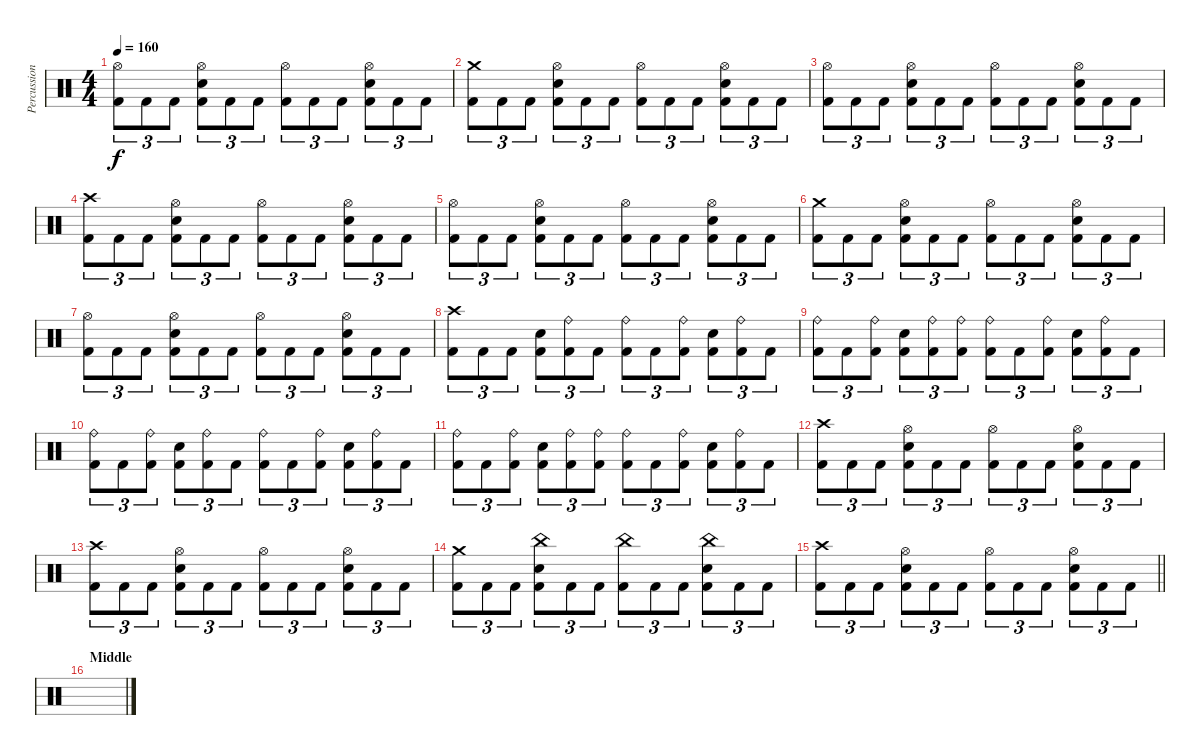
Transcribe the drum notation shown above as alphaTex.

\track ("Percussion" "Percussion") {instrument percussion}
\staff {score}
\articulation defaults
\ts (4 4)
\tempo 160
\clef neutral
\ks c
("Hi-Hat (open)" "Kick (hit) 2").8{tu (3 2) dy f} "Kick (hit) 2".8{tu (3 2)} "Kick (hit) 2".8{tu (3 2)} ("Hi-Hat (open)" "Snare (hit) 2" "Kick (hit) 2").8{tu (3 2)} "Kick (hit) 2".8{tu (3 2)} "Kick (hit) 2".8{tu (3 2)} ("Hi-Hat (open)" "Kick (hit) 2").8{tu (3 2)} "Kick (hit) 2".8{tu (3 2)} "Kick (hit) 2".8{tu (3 2)} ("Hi-Hat (open)" "Snare (hit) 2" "Kick (hit) 2").8{tu (3 2)} "Kick (hit) 2".8{tu (3 2)} "Kick (hit) 2".8{tu (3 2)} |
("Crash medium (hit)" "Kick (hit) 2").8{tu (3 2)} "Kick (hit) 2".8{tu (3 2)} "Kick (hit) 2".8{tu (3 2)} ("Hi-Hat (open)" "Snare (hit) 2" "Kick (hit) 2").8{tu (3 2)} "Kick (hit) 2".8{tu (3 2)} "Kick (hit) 2".8{tu (3 2)} ("Hi-Hat (open)" "Kick (hit) 2").8{tu (3 2)} "Kick (hit) 2".8{tu (3 2)} "Kick (hit) 2".8{tu (3 2)} ("Hi-Hat (open)" "Snare (hit) 2" "Kick (hit) 2").8{tu (3 2)} "Kick (hit) 2".8{tu (3 2)} "Kick (hit) 2".8{tu (3 2)} |
("Hi-Hat (open)" "Kick (hit) 2").8{tu (3 2)} "Kick (hit) 2".8{tu (3 2)} "Kick (hit) 2".8{tu (3 2)} ("Hi-Hat (open)" "Snare (hit) 2" "Kick (hit) 2").8{tu (3 2)} "Kick (hit) 2".8{tu (3 2)} "Kick (hit) 2".8{tu (3 2)} ("Hi-Hat (open)" "Kick (hit) 2").8{tu (3 2)} "Kick (hit) 2".8{tu (3 2)} "Kick (hit) 2".8{tu (3 2)} ("Hi-Hat (open)" "Snare (hit) 2" "Kick (hit) 2").8{tu (3 2)} "Kick (hit) 2".8{tu (3 2)} "Kick (hit) 2".8{tu (3 2)} |
("Crash high (hit)" "Kick (hit) 2").8{tu (3 2)} "Kick (hit) 2".8{tu (3 2)} "Kick (hit) 2".8{tu (3 2)} ("Hi-Hat (open)" "Snare (hit) 2" "Kick (hit) 2").8{tu (3 2)} "Kick (hit) 2".8{tu (3 2)} "Kick (hit) 2".8{tu (3 2)} ("Hi-Hat (open)" "Kick (hit) 2").8{tu (3 2)} "Kick (hit) 2".8{tu (3 2)} "Kick (hit) 2".8{tu (3 2)} ("Hi-Hat (open)" "Snare (hit) 2" "Kick (hit) 2").8{tu (3 2)} "Kick (hit) 2".8{tu (3 2)} "Kick (hit) 2".8{tu (3 2)} |
("Hi-Hat (open)" "Kick (hit) 2").8{tu (3 2)} "Kick (hit) 2".8{tu (3 2)} "Kick (hit) 2".8{tu (3 2)} ("Hi-Hat (open)" "Snare (hit) 2" "Kick (hit) 2").8{tu (3 2)} "Kick (hit) 2".8{tu (3 2)} "Kick (hit) 2".8{tu (3 2)} ("Hi-Hat (open)" "Kick (hit) 2").8{tu (3 2)} "Kick (hit) 2".8{tu (3 2)} "Kick (hit) 2".8{tu (3 2)} ("Hi-Hat (open)" "Snare (hit) 2" "Kick (hit) 2").8{tu (3 2)} "Kick (hit) 2".8{tu (3 2)} "Kick (hit) 2".8{tu (3 2)} |
("Crash medium (hit)" "Kick (hit) 2").8{tu (3 2)} "Kick (hit) 2".8{tu (3 2)} "Kick (hit) 2".8{tu (3 2)} ("Hi-Hat (open)" "Snare (hit) 2" "Kick (hit) 2").8{tu (3 2)} "Kick (hit) 2".8{tu (3 2)} "Kick (hit) 2".8{tu (3 2)} ("Hi-Hat (open)" "Kick (hit) 2").8{tu (3 2)} "Kick (hit) 2".8{tu (3 2)} "Kick (hit) 2".8{tu (3 2)} ("Hi-Hat (open)" "Snare (hit) 2" "Kick (hit) 2").8{tu (3 2)} "Kick (hit) 2".8{tu (3 2)} "Kick (hit) 2".8{tu (3 2)} |
("Hi-Hat (open)" "Kick (hit) 2").8{tu (3 2)} "Kick (hit) 2".8{tu (3 2)} "Kick (hit) 2".8{tu (3 2)} ("Hi-Hat (open)" "Snare (hit) 2" "Kick (hit) 2").8{tu (3 2)} "Kick (hit) 2".8{tu (3 2)} "Kick (hit) 2".8{tu (3 2)} ("Hi-Hat (open)" "Kick (hit) 2").8{tu (3 2)} "Kick (hit) 2".8{tu (3 2)} "Kick (hit) 2".8{tu (3 2)} ("Hi-Hat (open)" "Snare (hit) 2" "Kick (hit) 2").8{tu (3 2)} "Kick (hit) 2".8{tu (3 2)} "Kick (hit) 2".8{tu (3 2)} |
("Crash high (hit)" "Kick (hit) 2").8{tu (3 2)} "Kick (hit) 2".8{tu (3 2)} "Kick (hit) 2".8{tu (3 2)} ("Snare (hit) 2" "Kick (hit) 2").8{tu (3 2)} ("Ride (bell)" "Kick (hit) 2").8{tu (3 2)} "Kick (hit) 2".8{tu (3 2)} ("Ride (bell)" "Kick (hit) 2").8{tu (3 2)} "Kick (hit) 2".8{tu (3 2)} ("Ride (bell)" "Kick (hit) 2").8{tu (3 2)} ("Snare (hit) 2" "Kick (hit) 2").8{tu (3 2)} ("Ride (bell)" "Kick (hit) 2").8{tu (3 2)} "Kick (hit) 2".8{tu (3 2)} |
("Ride (bell)" "Kick (hit) 2").8{tu (3 2)} "Kick (hit) 2".8{tu (3 2)} ("Ride (bell)" "Kick (hit) 2").8{tu (3 2)} ("Snare (hit) 2" "Kick (hit) 2").8{tu (3 2)} ("Ride (bell)" "Kick (hit) 2").8{tu (3 2)} ("Ride (bell)" "Kick (hit) 2").8{tu (3 2)} ("Ride (bell)" "Kick (hit) 2").8{tu (3 2)} "Kick (hit) 2".8{tu (3 2)} ("Ride (bell)" "Kick (hit) 2").8{tu (3 2)} ("Snare (hit) 2" "Kick (hit) 2").8{tu (3 2)} ("Ride (bell)" "Kick (hit) 2").8{tu (3 2)} "Kick (hit) 2".8{tu (3 2)} |
("Ride (bell)" "Kick (hit) 2").8{tu (3 2)} "Kick (hit) 2".8{tu (3 2)} ("Ride (bell)" "Kick (hit) 2").8{tu (3 2)} ("Snare (hit) 2" "Kick (hit) 2").8{tu (3 2)} ("Ride (bell)" "Kick (hit) 2").8{tu (3 2)} "Kick (hit) 2".8{tu (3 2)} ("Ride (bell)" "Kick (hit) 2").8{tu (3 2)} "Kick (hit) 2".8{tu (3 2)} ("Ride (bell)" "Kick (hit) 2").8{tu (3 2)} ("Snare (hit) 2" "Kick (hit) 2").8{tu (3 2)} ("Ride (bell)" "Kick (hit) 2").8{tu (3 2)} "Kick (hit) 2".8{tu (3 2)} |
("Ride (bell)" "Kick (hit) 2").8{tu (3 2)} "Kick (hit) 2".8{tu (3 2)} ("Ride (bell)" "Kick (hit) 2").8{tu (3 2)} ("Snare (hit) 2" "Kick (hit) 2").8{tu (3 2)} ("Ride (bell)" "Kick (hit) 2").8{tu (3 2)} ("Ride (bell)" "Kick (hit) 2").8{tu (3 2)} ("Ride (bell)" "Kick (hit) 2").8{tu (3 2)} "Kick (hit) 2".8{tu (3 2)} ("Ride (bell)" "Kick (hit) 2").8{tu (3 2)} ("Snare (hit) 2" "Kick (hit) 2").8{tu (3 2)} ("Ride (bell)" "Kick (hit) 2").8{tu (3 2)} "Kick (hit) 2".8{tu (3 2)} |
("Crash high (hit)" "Kick (hit) 2").8{tu (3 2)} "Kick (hit) 2".8{tu (3 2)} "Kick (hit) 2".8{tu (3 2)} ("Hi-Hat (open)" "Snare (hit) 2" "Kick (hit) 2").8{tu (3 2)} "Kick (hit) 2".8{tu (3 2)} "Kick (hit) 2".8{tu (3 2)} ("Hi-Hat (open)" "Kick (hit) 2").8{tu (3 2)} "Kick (hit) 2".8{tu (3 2)} "Kick (hit) 2".8{tu (3 2)} ("Hi-Hat (open)" "Snare (hit) 2" "Kick (hit) 2").8{tu (3 2)} "Kick (hit) 2".8{tu (3 2)} "Kick (hit) 2".8{tu (3 2)} |
("Crash high (hit)" "Kick (hit) 2").8{tu (3 2)} "Kick (hit) 2".8{tu (3 2)} "Kick (hit) 2".8{tu (3 2)} ("Hi-Hat (open)" "Snare (hit) 2" "Kick (hit) 2").8{tu (3 2)} "Kick (hit) 2".8{tu (3 2)} "Kick (hit) 2".8{tu (3 2)} ("Hi-Hat (open)" "Kick (hit) 2").8{tu (3 2)} "Kick (hit) 2".8{tu (3 2)} "Kick (hit) 2".8{tu (3 2)} ("Hi-Hat (open)" "Snare (hit) 2" "Kick (hit) 2").8{tu (3 2)} "Kick (hit) 2".8{tu (3 2)} "Kick (hit) 2".8{tu (3 2)} |
("Crash medium (hit)" "Kick (hit) 2").8{tu (3 2)} "Kick (hit) 2".8{tu (3 2)} "Kick (hit) 2".8{tu (3 2)} ("China (hit)" "Snare (hit) 2" "Kick (hit) 2").8{tu (3 2)} "Kick (hit) 2".8{tu (3 2)} "Kick (hit) 2".8{tu (3 2)} ("China (hit)" "Kick (hit) 2").8{tu (3 2)} "Kick (hit) 2".8{tu (3 2)} "Kick (hit) 2".8{tu (3 2)} ("China (hit)" "Snare (hit) 2" "Kick (hit) 2").8{tu (3 2)} "Kick (hit) 2".8{tu (3 2)} "Kick (hit) 2".8{tu (3 2)} |
\barLineRight lightlight
("Crash high (hit)" "Kick (hit) 2").8{tu (3 2)} "Kick (hit) 2".8{tu (3 2)} "Kick (hit) 2".8{tu (3 2)} ("Hi-Hat (open)" "Snare (hit) 2" "Kick (hit) 2").8{tu (3 2)} "Kick (hit) 2".8{tu (3 2)} "Kick (hit) 2".8{tu (3 2)} ("Hi-Hat (open)" "Kick (hit) 2").8{tu (3 2)} "Kick (hit) 2".8{tu (3 2)} "Kick (hit) 2".8{tu (3 2)} ("Hi-Hat (open)" "Snare (hit) 2" "Kick (hit) 2").8{tu (3 2)} "Kick (hit) 2".8{tu (3 2)} "Kick (hit) 2".8{tu (3 2)} |
\section ("" "Middle")
